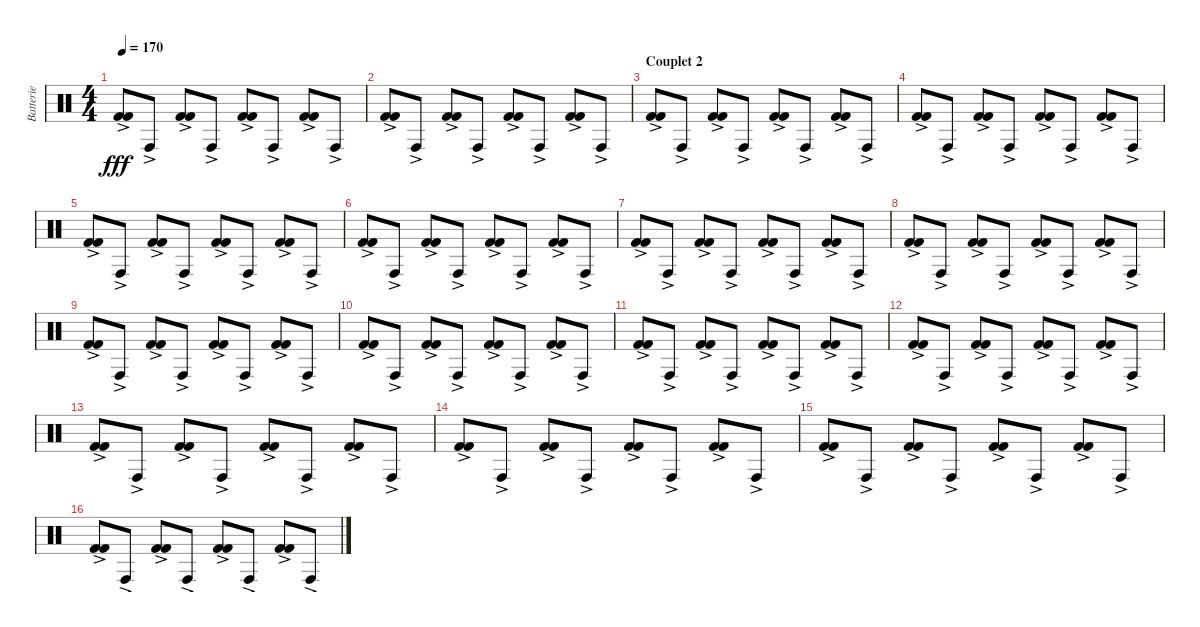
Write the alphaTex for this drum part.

\track ("Batterie" "Batterie") {instrument percussion}
\staff {score}
\articulation defaults
\ts (4 4)
\tempo 170
\clef neutral
\ks c
("Kick (hit) 2"{ac} "Kick (hit) 2"{ac}).8{dy fff} "Conga high (hit)"{ac}.8 ("Kick (hit) 2"{ac} "Kick (hit) 2"{ac}).8 "Conga high (hit)"{ac}.8 ("Kick (hit) 2"{ac} "Kick (hit) 2"{ac}).8 "Conga high (hit)"{ac}.8 ("Kick (hit) 2"{ac} "Kick (hit) 2"{ac}).8 "Conga high (hit)"{ac}.8 |
("Kick (hit) 2"{ac} "Kick (hit) 2"{ac}).8 "Conga high (hit)"{ac}.8 ("Kick (hit) 2"{ac} "Kick (hit) 2"{ac}).8 "Conga high (hit)"{ac}.8 ("Kick (hit) 2"{ac} "Kick (hit) 2"{ac}).8 "Conga high (hit)"{ac}.8 ("Kick (hit) 2"{ac} "Kick (hit) 2"{ac}).8 "Conga high (hit)"{ac}.8 |
\section ("" "Couplet 2")
("Kick (hit) 2"{ac} "Kick (hit) 2"{ac}).8 "Conga high (hit)"{ac}.8 ("Kick (hit) 2"{ac} "Kick (hit) 2"{ac}).8 "Conga high (hit)"{ac}.8 ("Kick (hit) 2"{ac} "Kick (hit) 2"{ac}).8 "Conga high (hit)"{ac}.8 ("Kick (hit) 2"{ac} "Kick (hit) 2"{ac}).8 "Conga high (hit)"{ac}.8 |
("Kick (hit) 2"{ac} "Kick (hit) 2"{ac}).8 "Conga high (hit)"{ac}.8 ("Kick (hit) 2"{ac} "Kick (hit) 2"{ac}).8 "Conga high (hit)"{ac}.8 ("Kick (hit) 2"{ac} "Kick (hit) 2"{ac}).8 "Conga high (hit)"{ac}.8 ("Kick (hit) 2"{ac} "Kick (hit) 2"{ac}).8 "Conga high (hit)"{ac}.8 |
("Kick (hit) 2"{ac} "Kick (hit) 2"{ac}).8 "Conga high (hit)"{ac}.8 ("Kick (hit) 2"{ac} "Kick (hit) 2"{ac}).8 "Conga high (hit)"{ac}.8 ("Kick (hit) 2"{ac} "Kick (hit) 2"{ac}).8 "Conga high (hit)"{ac}.8 ("Kick (hit) 2"{ac} "Kick (hit) 2"{ac}).8 "Conga high (hit)"{ac}.8 |
("Kick (hit) 2"{ac} "Kick (hit) 2"{ac}).8 "Conga high (hit)"{ac}.8 ("Kick (hit) 2"{ac} "Kick (hit) 2"{ac}).8 "Conga high (hit)"{ac}.8 ("Kick (hit) 2"{ac} "Kick (hit) 2"{ac}).8 "Conga high (hit)"{ac}.8 ("Kick (hit) 2"{ac} "Kick (hit) 2"{ac}).8 "Conga high (hit)"{ac}.8 |
("Kick (hit) 2"{ac} "Kick (hit) 2"{ac}).8 "Conga high (hit)"{ac}.8 ("Kick (hit) 2"{ac} "Kick (hit) 2"{ac}).8 "Conga high (hit)"{ac}.8 ("Kick (hit) 2"{ac} "Kick (hit) 2"{ac}).8 "Conga high (hit)"{ac}.8 ("Kick (hit) 2"{ac} "Kick (hit) 2"{ac}).8 "Conga high (hit)"{ac}.8 |
("Kick (hit) 2"{ac} "Kick (hit) 2"{ac}).8 "Conga high (hit)"{ac}.8 ("Kick (hit) 2"{ac} "Kick (hit) 2"{ac}).8 "Conga high (hit)"{ac}.8 ("Kick (hit) 2"{ac} "Kick (hit) 2"{ac}).8 "Conga high (hit)"{ac}.8 ("Kick (hit) 2"{ac} "Kick (hit) 2"{ac}).8 "Conga high (hit)"{ac}.8 |
("Kick (hit) 2"{ac} "Kick (hit) 2"{ac}).8 "Conga high (hit)"{ac}.8 ("Kick (hit) 2"{ac} "Kick (hit) 2"{ac}).8 "Conga high (hit)"{ac}.8 ("Kick (hit) 2"{ac} "Kick (hit) 2"{ac}).8 "Conga high (hit)"{ac}.8 ("Kick (hit) 2"{ac} "Kick (hit) 2"{ac}).8 "Conga high (hit)"{ac}.8 |
("Kick (hit) 2"{ac} "Kick (hit) 2"{ac}).8 "Conga high (hit)"{ac}.8 ("Kick (hit) 2"{ac} "Kick (hit) 2"{ac}).8 "Conga high (hit)"{ac}.8 ("Kick (hit) 2"{ac} "Kick (hit) 2"{ac}).8 "Conga high (hit)"{ac}.8 ("Kick (hit) 2"{ac} "Kick (hit) 2"{ac}).8 "Conga high (hit)"{ac}.8 |
("Kick (hit) 2"{ac} "Kick (hit) 2"{ac}).8 "Conga high (hit)"{ac}.8 ("Kick (hit) 2"{ac} "Kick (hit) 2"{ac}).8 "Conga high (hit)"{ac}.8 ("Kick (hit) 2"{ac} "Kick (hit) 2"{ac}).8 "Conga high (hit)"{ac}.8 ("Kick (hit) 2"{ac} "Kick (hit) 2"{ac}).8 "Conga high (hit)"{ac}.8 |
("Kick (hit) 2"{ac} "Kick (hit) 2"{ac}).8 "Conga high (hit)"{ac}.8 ("Kick (hit) 2"{ac} "Kick (hit) 2"{ac}).8 "Conga high (hit)"{ac}.8 ("Kick (hit) 2"{ac} "Kick (hit) 2"{ac}).8 "Conga high (hit)"{ac}.8 ("Kick (hit) 2"{ac} "Kick (hit) 2"{ac}).8 "Conga high (hit)"{ac}.8 |
("Kick (hit) 2"{ac} "Kick (hit) 2"{ac}).8 "Conga high (hit)"{ac}.8 ("Kick (hit) 2"{ac} "Kick (hit) 2"{ac}).8 "Conga high (hit)"{ac}.8 ("Kick (hit) 2"{ac} "Kick (hit) 2"{ac}).8 "Conga high (hit)"{ac}.8 ("Kick (hit) 2"{ac} "Kick (hit) 2"{ac}).8 "Conga high (hit)"{ac}.8 |
("Kick (hit) 2"{ac} "Kick (hit) 2"{ac}).8 "Conga high (hit)"{ac}.8 ("Kick (hit) 2"{ac} "Kick (hit) 2"{ac}).8 "Conga high (hit)"{ac}.8 ("Kick (hit) 2"{ac} "Kick (hit) 2"{ac}).8 "Conga high (hit)"{ac}.8 ("Kick (hit) 2"{ac} "Kick (hit) 2"{ac}).8 "Conga high (hit)"{ac}.8 |
("Kick (hit) 2"{ac} "Kick (hit) 2"{ac}).8 "Conga high (hit)"{ac}.8 ("Kick (hit) 2"{ac} "Kick (hit) 2"{ac}).8 "Conga high (hit)"{ac}.8 ("Kick (hit) 2"{ac} "Kick (hit) 2"{ac}).8 "Conga high (hit)"{ac}.8 ("Kick (hit) 2"{ac} "Kick (hit) 2"{ac}).8 "Conga high (hit)"{ac}.8 |
("Kick (hit) 2"{ac} "Kick (hit) 2"{ac}).8 "Conga high (hit)"{ac}.8 ("Kick (hit) 2"{ac} "Kick (hit) 2"{ac}).8 "Conga high (hit)"{ac}.8 ("Kick (hit) 2"{ac} "Kick (hit) 2"{ac}).8 "Conga high (hit)"{ac}.8 ("Kick (hit) 2"{ac} "Kick (hit) 2"{ac}).8 "Conga high (hit)"{ac}.8
